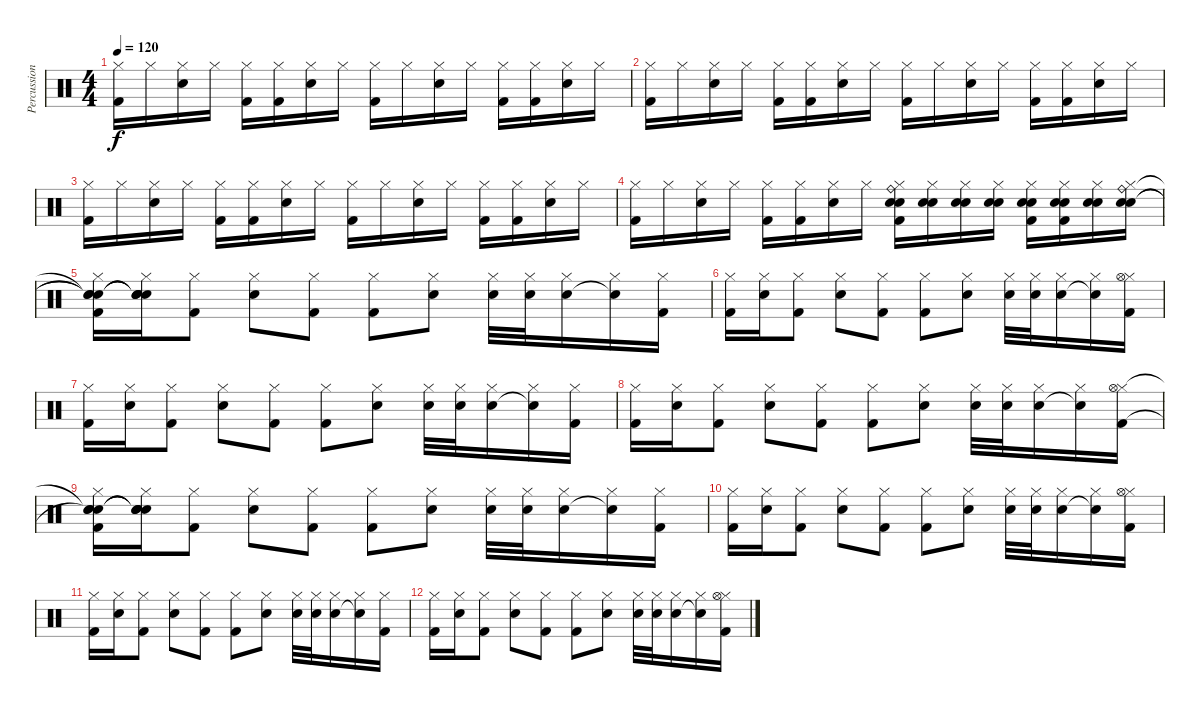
\track ("Percussions" "Percussion") {instrument percussion}
\staff {score}
\articulation defaults
\ts (4 4)
\tempo 120
\clef neutral
\ks c
("Hi-Hat (closed)" "Kick (hit) 2").16{dy f} "Hi-Hat (closed)".16 ("Hi-Hat (closed)" "Electric Snare (hit)").16 "Hi-Hat (closed)".16 ("Hi-Hat (closed)" "Kick (hit) 2").16 ("Hi-Hat (closed)" "Kick (hit) 2").16 ("Hi-Hat (closed)" "Electric Snare (hit)").16 "Hi-Hat (closed)".16 ("Hi-Hat (closed)" "Kick (hit) 2").16 "Hi-Hat (closed)".16 ("Hi-Hat (closed)" "Electric Snare (hit)").16 "Hi-Hat (closed)".16 ("Hi-Hat (closed)" "Kick (hit) 2").16 ("Hi-Hat (closed)" "Kick (hit) 2").16 ("Hi-Hat (closed)" "Electric Snare (hit)").16 "Hi-Hat (closed)".16 |
("Hi-Hat (closed)" "Kick (hit) 2").16 "Hi-Hat (closed)".16 ("Hi-Hat (closed)" "Electric Snare (hit)").16 "Hi-Hat (closed)".16 ("Hi-Hat (closed)" "Kick (hit) 2").16 ("Hi-Hat (closed)" "Kick (hit) 2").16 ("Hi-Hat (closed)" "Electric Snare (hit)").16 "Hi-Hat (closed)".16 ("Hi-Hat (closed)" "Kick (hit) 2").16 "Hi-Hat (closed)".16 ("Hi-Hat (closed)" "Electric Snare (hit)").16 "Hi-Hat (closed)".16 ("Hi-Hat (closed)" "Kick (hit) 2").16 ("Hi-Hat (closed)" "Kick (hit) 2").16 ("Hi-Hat (closed)" "Electric Snare (hit)").16 "Hi-Hat (closed)".16 |
("Hi-Hat (closed)" "Kick (hit) 2").16 "Hi-Hat (closed)".16 ("Hi-Hat (closed)" "Electric Snare (hit)").16 "Hi-Hat (closed)".16 ("Hi-Hat (closed)" "Kick (hit) 2").16 ("Hi-Hat (closed)" "Kick (hit) 2").16 ("Hi-Hat (closed)" "Electric Snare (hit)").16 "Hi-Hat (closed)".16 ("Hi-Hat (closed)" "Kick (hit) 2").16 "Hi-Hat (closed)".16 ("Hi-Hat (closed)" "Electric Snare (hit)").16 "Hi-Hat (closed)".16 ("Hi-Hat (closed)" "Kick (hit) 2").16 ("Hi-Hat (closed)" "Kick (hit) 2").16 ("Hi-Hat (closed)" "Electric Snare (hit)").16 "Hi-Hat (closed)".16 |
("Hi-Hat (closed)" "Kick (hit) 2").16 "Hi-Hat (closed)".16 ("Hi-Hat (closed)" "Electric Snare (hit)").16 "Hi-Hat (closed)".16 ("Hi-Hat (closed)" "Kick (hit) 2").16 ("Hi-Hat (closed)" "Kick (hit) 2").16 ("Hi-Hat (closed)" "Electric Snare (hit)").16 "Hi-Hat (closed)".16 ("Hi-Hat (closed)" "Ride (bell)" "Snare (hit) 2" "Electric Snare (hit)" "Kick (hit) 2").16 ("Hi-Hat (closed)" "Snare (hit) 2" "Electric Snare (hit)").16 ("Hi-Hat (closed)" "Snare (hit) 2" "Electric Snare (hit)").16 ("Hi-Hat (closed)" "Snare (hit) 2" "Electric Snare (hit)").16 ("Hi-Hat (closed)" "Snare (hit) 2" "Electric Snare (hit)" "Kick (hit) 2").16 ("Hi-Hat (closed)" "Snare (hit) 2" "Electric Snare (hit)" "Kick (hit) 2").16 ("Hi-Hat (closed)" "Snare (hit) 2" "Electric Snare (hit)").16 ("Hi-Hat (closed)" "Ride (bell)" "Snare (hit) 2" "Electric Snare (hit)").16 |
("Hi-Hat (closed)" "Snare (hit)"{t} "Snare (hit)"{t} "Snare (hit)"{t} "Kick (hit) 2").16 ("Hi-Hat (closed)" "Snare (hit)"{t} "Snare (hit)"{t} "Snare (hit)"{t} "Snare (hit) 2").16 ("Hi-Hat (closed)" "Kick (hit) 2").8 ("Hi-Hat (closed)" "Electric Snare (hit)").8 ("Hi-Hat (closed)" "Kick (hit) 2").8 ("Hi-Hat (closed)" "Kick (hit) 2").8 ("Hi-Hat (closed)" "Snare (hit) 2").8 ("Hi-Hat (closed)" "Snare (hit) 2").32 ("Hi-Hat (closed)" "Electric Snare (hit)").32 ("Hi-Hat (closed)" "Snare (hit) 2").16 ("Hi-Hat (closed)" "Snare (hit)"{t}).16 ("Hi-Hat (closed)" "Kick (hit) 2").16 |
("Hi-Hat (closed)" "Kick (hit) 2").16 ("Hi-Hat (closed)" "Snare (hit) 2").16 ("Hi-Hat (closed)" "Kick (hit) 2").8 ("Hi-Hat (closed)" "Electric Snare (hit)").8 ("Hi-Hat (closed)" "Kick (hit) 2").8 ("Hi-Hat (closed)" "Kick (hit) 2").8 ("Hi-Hat (closed)" "Snare (hit) 2").8 ("Hi-Hat (closed)" "Snare (hit) 2").32 ("Hi-Hat (closed)" "Electric Snare (hit)").32 ("Hi-Hat (closed)" "Snare (hit) 2").16 ("Hi-Hat (closed)" "Snare (hit)"{t}).16 ("Hi-Hat (closed)" "Hi-Hat (open)" "Kick (hit) 2").16 |
("Hi-Hat (closed)" "Kick (hit) 2").16 ("Hi-Hat (closed)" "Snare (hit) 2").16 ("Hi-Hat (closed)" "Kick (hit) 2").8 ("Hi-Hat (closed)" "Electric Snare (hit)").8 ("Hi-Hat (closed)" "Kick (hit) 2").8 ("Hi-Hat (closed)" "Kick (hit) 2").8 ("Hi-Hat (closed)" "Snare (hit) 2").8 ("Hi-Hat (closed)" "Snare (hit) 2").32 ("Hi-Hat (closed)" "Electric Snare (hit)").32 ("Hi-Hat (closed)" "Snare (hit) 2").16 ("Hi-Hat (closed)" "Snare (hit)"{t}).16 ("Hi-Hat (closed)" "Kick (hit) 2").16 |
("Hi-Hat (closed)" "Kick (hit) 2").16 ("Hi-Hat (closed)" "Snare (hit) 2").16 ("Hi-Hat (closed)" "Kick (hit) 2").8 ("Hi-Hat (closed)" "Electric Snare (hit)").8 ("Hi-Hat (closed)" "Kick (hit) 2").8 ("Hi-Hat (closed)" "Kick (hit) 2").8 ("Hi-Hat (closed)" "Snare (hit) 2").8 ("Hi-Hat (closed)" "Snare (hit) 2").32 ("Hi-Hat (closed)" "Electric Snare (hit)").32 ("Hi-Hat (closed)" "Snare (hit) 2").16 ("Hi-Hat (closed)" "Snare (hit)"{t}).16 ("Hi-Hat (closed)" "Hi-Hat (open)" "Kick (hit) 2").16 |
("Hi-Hat (closed)" "Snare (hit)"{t} "Snare (hit)"{t} "Snare (hit)" "Kick (hit) 2").16 ("Hi-Hat (closed)" "Snare (hit)"{t} "Snare (hit)"{t} "Snare (hit)"{t} "Snare (hit) 2").16 ("Hi-Hat (closed)" "Kick (hit) 2").8 ("Hi-Hat (closed)" "Electric Snare (hit)").8 ("Hi-Hat (closed)" "Kick (hit) 2").8 ("Hi-Hat (closed)" "Kick (hit) 2").8 ("Hi-Hat (closed)" "Snare (hit) 2").8 ("Hi-Hat (closed)" "Snare (hit) 2").32 ("Hi-Hat (closed)" "Electric Snare (hit)").32 ("Hi-Hat (closed)" "Snare (hit) 2").16 ("Hi-Hat (closed)" "Snare (hit)"{t}).16 ("Hi-Hat (closed)" "Kick (hit) 2").16 |
("Hi-Hat (closed)" "Kick (hit) 2").16 ("Hi-Hat (closed)" "Snare (hit) 2").16 ("Hi-Hat (closed)" "Kick (hit) 2").8 ("Hi-Hat (closed)" "Electric Snare (hit)").8 ("Hi-Hat (closed)" "Kick (hit) 2").8 ("Hi-Hat (closed)" "Kick (hit) 2").8 ("Hi-Hat (closed)" "Snare (hit) 2").8 ("Hi-Hat (closed)" "Snare (hit) 2").32 ("Hi-Hat (closed)" "Electric Snare (hit)").32 ("Hi-Hat (closed)" "Snare (hit) 2").16 ("Hi-Hat (closed)" "Snare (hit)"{t}).16 ("Hi-Hat (closed)" "Hi-Hat (open)" "Kick (hit) 2").16 |
("Hi-Hat (closed)" "Kick (hit) 2").16 ("Hi-Hat (closed)" "Snare (hit) 2").16 ("Hi-Hat (closed)" "Kick (hit) 2").8 ("Hi-Hat (closed)" "Electric Snare (hit)").8 ("Hi-Hat (closed)" "Kick (hit) 2").8 ("Hi-Hat (closed)" "Kick (hit) 2").8 ("Hi-Hat (closed)" "Snare (hit) 2").8 ("Hi-Hat (closed)" "Snare (hit) 2").32 ("Hi-Hat (closed)" "Electric Snare (hit)").32 ("Hi-Hat (closed)" "Snare (hit) 2").16 ("Hi-Hat (closed)" "Snare (hit)"{t}).16 ("Hi-Hat (closed)" "Kick (hit) 2").16 |
("Hi-Hat (closed)" "Kick (hit) 2").16 ("Hi-Hat (closed)" "Snare (hit) 2").16 ("Hi-Hat (closed)" "Kick (hit) 2").8 ("Hi-Hat (closed)" "Electric Snare (hit)").8 ("Hi-Hat (closed)" "Kick (hit) 2").8 ("Hi-Hat (closed)" "Kick (hit) 2").8 ("Hi-Hat (closed)" "Snare (hit) 2").8 ("Hi-Hat (closed)" "Snare (hit) 2").32 ("Hi-Hat (closed)" "Electric Snare (hit)").32 ("Hi-Hat (closed)" "Snare (hit) 2").16 ("Hi-Hat (closed)" "Snare (hit)"{t}).16 ("Hi-Hat (closed)" "Hi-Hat (open)" "Kick (hit) 2").16
